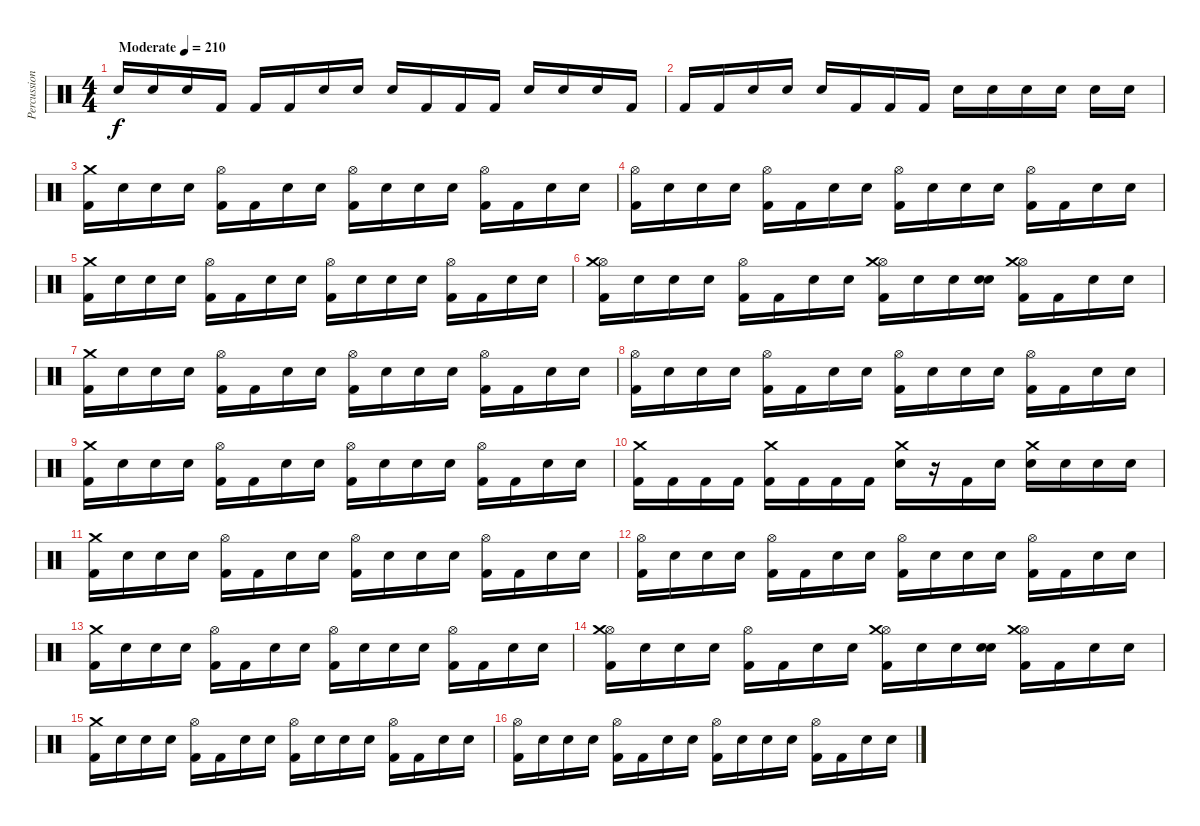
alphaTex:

\track ("Percussion" "Percussion") {instrument percussion}
\staff {score}
\articulation defaults
\ts (4 4)
\tempo (210 "Moderate")
\clef neutral
\ks c "Snare (hit) 2".16{dy f} "Snare (hit) 2".16 "Snare (hit) 2".16 "Kick (hit) 2".16 "Kick (hit) 2".16 "Kick (hit) 2".16 "Snare (hit) 2".16 "Snare (hit) 2".16 "Snare (hit) 2".16 "Kick (hit) 2".16 "Kick (hit) 2".16 "Kick (hit) 2".16 "Snare (hit) 2".16 "Snare (hit) 2".16 "Snare (hit) 2".16 "Kick (hit) 2".16
|
"Kick (hit) 2".16 "Kick (hit) 2".16 "Snare (hit) 2".16 "Snare (hit) 2".16 "Snare (hit) 2".16 "Kick (hit) 2".16 "Kick (hit) 2".16 "Kick (hit) 2".16 "Snare (hit) 2".16 "Snare (hit) 2".16 "Snare (hit) 2".16 "Snare (hit) 2".16 "Snare (hit) 2".16 "Snare (hit) 2".16 |
("Kick (hit) 2" "Crash medium (hit)").16 "Snare (hit)".16 "Snare (hit) 2".16 "Snare (hit)".16 ("Kick (hit) 2" "Hi-Hat (open)").16 "Kick (hit) 2".16 "Snare (hit) 2".16 "Snare (hit)".16 ("Kick (hit) 2" "Hi-Hat (open)").16 "Snare (hit)".16 "Snare (hit) 2".16 "Snare (hit)".16 ("Kick (hit) 2" "Hi-Hat (open)").16 "Kick (hit) 2".16 "Snare (hit) 2".16 "Snare (hit)".16 |
("Kick (hit) 2" "Hi-Hat (open)").16 "Snare (hit)".16 "Snare (hit) 2".16 "Snare (hit)".16 ("Kick (hit) 2" "Hi-Hat (open)").16 "Kick (hit) 2".16 "Snare (hit) 2".16 "Snare (hit)".16 ("Kick (hit) 2" "Hi-Hat (open)").16 "Snare (hit)".16 "Snare (hit) 2".16 "Snare (hit)".16 ("Kick (hit) 2" "Hi-Hat (open)").16 "Kick (hit) 2".16 "Snare (hit) 2".16 "Snare (hit)".16 |
("Kick (hit) 2" "Crash medium (hit)").16 "Snare (hit)".16 "Snare (hit) 2".16 "Snare (hit)".16 ("Kick (hit) 2" "Hi-Hat (open)").16 "Kick (hit) 2".16 "Snare (hit) 2".16 "Snare (hit)".16 ("Kick (hit) 2" "Hi-Hat (open)").16 "Snare (hit)".16 "Snare (hit) 2".16 "Snare (hit)".16 ("Kick (hit) 2" "Hi-Hat (open)").16 "Kick (hit) 2".16 "Snare (hit) 2".16 "Snare (hit)".16 |
("Kick (hit) 2" "Hi-Hat (open)" "Crash medium (hit)").16 "Snare (hit)".16 "Snare (hit) 2".16 "Snare (hit)".16 ("Kick (hit) 2" "Hi-Hat (open)").16 "Kick (hit) 2".16 "Snare (hit) 2".16 "Snare (hit)".16 ("Kick (hit) 2" "Hi-Hat (open)" "Crash medium (hit)").16 "Snare (hit)".16 "Snare (hit) 2".16 ("Snare (hit)" "Snare (hit)").16 ("Kick (hit) 2" "Hi-Hat (open)" "Crash medium (hit)").16 "Kick (hit) 2".16 "Snare (hit) 2".16 "Snare (hit)".16 |
("Kick (hit) 2" "Crash medium (hit)").16 "Snare (hit)".16 "Snare (hit) 2".16 "Snare (hit)".16 ("Kick (hit) 2" "Hi-Hat (open)").16 "Kick (hit) 2".16 "Snare (hit) 2".16 "Snare (hit)".16 ("Kick (hit) 2" "Hi-Hat (open)").16 "Snare (hit)".16 "Snare (hit) 2".16 "Snare (hit)".16 ("Kick (hit) 2" "Hi-Hat (open)").16 "Kick (hit) 2".16 "Snare (hit) 2".16 "Snare (hit)".16 |
("Kick (hit) 2" "Hi-Hat (open)").16 "Snare (hit)".16 "Snare (hit) 2".16 "Snare (hit)".16 ("Kick (hit) 2" "Hi-Hat (open)").16 "Kick (hit) 2".16 "Snare (hit) 2".16 "Snare (hit)".16 ("Kick (hit) 2" "Hi-Hat (open)").16 "Snare (hit)".16 "Snare (hit) 2".16 "Snare (hit)".16 ("Kick (hit) 2" "Hi-Hat (open)").16 "Kick (hit) 2".16 "Snare (hit) 2".16 "Snare (hit)".16 |
("Kick (hit) 2" "Crash medium (hit)").16 "Snare (hit)".16 "Snare (hit) 2".16 "Snare (hit)".16 ("Kick (hit) 2" "Hi-Hat (open)").16 "Kick (hit) 2".16 "Snare (hit) 2".16 "Snare (hit)".16 ("Kick (hit) 2" "Hi-Hat (open)").16 "Snare (hit)".16 "Snare (hit) 2".16 "Snare (hit)".16 ("Kick (hit) 2" "Hi-Hat (open)").16 "Kick (hit) 2".16 "Snare (hit) 2".16 "Snare (hit)".16 |
("Crash medium (hit)" "Kick (hit) 2").16 "Kick (hit) 2".16 "Kick (hit) 2".16 "Kick (hit) 2".16 ("Kick (hit) 2" "Crash medium (hit)").16 "Kick (hit) 2".16 "Kick (hit) 2".16 "Kick (hit) 2".16 ("Snare (hit) 2" "Crash medium (hit)").16 r.16 "Kick (hit) 2".16 "Snare (hit)".16 ("Snare (hit) 2" "Crash medium (hit)").16 "Snare (hit)".16 "Snare (hit) 2".16 "Snare (hit) 2".16 |
("Kick (hit) 2" "Crash medium (hit)").16 "Snare (hit)".16 "Snare (hit) 2".16 "Snare (hit)".16 ("Kick (hit) 2" "Hi-Hat (open)").16 "Kick (hit) 2".16 "Snare (hit) 2".16 "Snare (hit)".16 ("Kick (hit) 2" "Hi-Hat (open)").16 "Snare (hit)".16 "Snare (hit) 2".16 "Snare (hit)".16 ("Kick (hit) 2" "Hi-Hat (open)").16 "Kick (hit) 2".16 "Snare (hit) 2".16 "Snare (hit)".16 |
("Kick (hit) 2" "Hi-Hat (open)").16 "Snare (hit)".16 "Snare (hit) 2".16 "Snare (hit)".16 ("Kick (hit) 2" "Hi-Hat (open)").16 "Kick (hit) 2".16 "Snare (hit) 2".16 "Snare (hit)".16 ("Kick (hit) 2" "Hi-Hat (open)").16 "Snare (hit)".16 "Snare (hit) 2".16 "Snare (hit)".16 ("Kick (hit) 2" "Hi-Hat (open)").16 "Kick (hit) 2".16 "Snare (hit) 2".16 "Snare (hit)".16 |
("Kick (hit) 2" "Crash medium (hit)").16 "Snare (hit)".16 "Snare (hit) 2".16 "Snare (hit)".16 ("Kick (hit) 2" "Hi-Hat (open)").16 "Kick (hit) 2".16 "Snare (hit) 2".16 "Snare (hit)".16 ("Kick (hit) 2" "Hi-Hat (open)").16 "Snare (hit)".16 "Snare (hit) 2".16 "Snare (hit)".16 ("Kick (hit) 2" "Hi-Hat (open)").16 "Kick (hit) 2".16 "Snare (hit) 2".16 "Snare (hit)".16 |
("Kick (hit) 2" "Hi-Hat (open)" "Crash medium (hit)").16 "Snare (hit)".16 "Snare (hit) 2".16 "Snare (hit)".16 ("Kick (hit) 2" "Hi-Hat (open)").16 "Kick (hit) 2".16 "Snare (hit) 2".16 "Snare (hit)".16 ("Kick (hit) 2" "Hi-Hat (open)" "Crash medium (hit)").16 "Snare (hit)".16 "Snare (hit) 2".16 ("Snare (hit)" "Snare (hit)").16 ("Kick (hit) 2" "Hi-Hat (open)" "Crash medium (hit)").16 "Kick (hit) 2".16 "Snare (hit) 2".16 "Snare (hit)".16 |
("Kick (hit) 2" "Crash medium (hit)").16 "Snare (hit)".16 "Snare (hit) 2".16 "Snare (hit)".16 ("Kick (hit) 2" "Hi-Hat (open)").16 "Kick (hit) 2".16 "Snare (hit) 2".16 "Snare (hit)".16 ("Kick (hit) 2" "Hi-Hat (open)").16 "Snare (hit)".16 "Snare (hit) 2".16 "Snare (hit)".16 ("Kick (hit) 2" "Hi-Hat (open)").16 "Kick (hit) 2".16 "Snare (hit) 2".16 "Snare (hit)".16 |
("Kick (hit) 2" "Hi-Hat (open)").16 "Snare (hit)".16 "Snare (hit) 2".16 "Snare (hit)".16 ("Kick (hit) 2" "Hi-Hat (open)").16 "Kick (hit) 2".16 "Snare (hit) 2".16 "Snare (hit)".16 ("Kick (hit) 2" "Hi-Hat (open)").16 "Snare (hit)".16 "Snare (hit) 2".16 "Snare (hit)".16 ("Kick (hit) 2" "Hi-Hat (open)").16 "Kick (hit) 2".16 "Snare (hit) 2".16 "Snare (hit)".16
